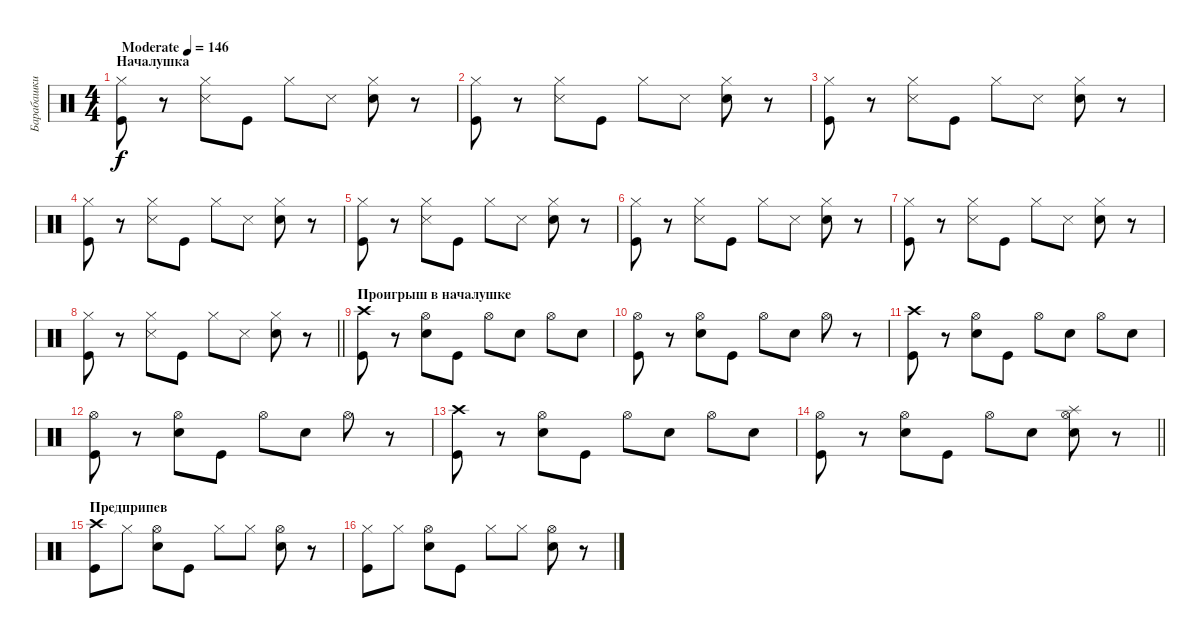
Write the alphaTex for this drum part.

\track ("Барабашки" "Барабашки") {instrument percussion}
\staff {score}
\articulation defaults
\ts (4 4)
\section ("" "Началушка")
\tempo (146 "Moderate")
\clef neutral
\ks c
("Hi-Hat (closed)" "Kick (hit)").8{dy f} r.8 ("Hi-Hat (closed)" "Snare (side stick) 3").8 "Kick (hit)".8 "Hi-Hat (closed)".8 "Snare (side stick) 3".8 ("Hi-Hat (closed)" "Hand Clap (hit)").8 r.8 |
("Hi-Hat (closed)" "Kick (hit)").8 r.8 ("Hi-Hat (closed)" "Snare (side stick) 3").8 "Kick (hit)".8 "Hi-Hat (closed)".8 "Snare (side stick) 3".8 ("Hi-Hat (closed)" "Hand Clap (hit)").8 r.8 |
("Hi-Hat (closed)" "Kick (hit)").8 r.8 ("Hi-Hat (closed)" "Snare (side stick) 3").8 "Kick (hit)".8 "Hi-Hat (closed)".8 "Snare (side stick) 3".8 ("Hi-Hat (closed)" "Hand Clap (hit)").8 r.8 |
("Hi-Hat (closed)" "Kick (hit)").8 r.8 ("Hi-Hat (closed)" "Snare (side stick) 3").8 "Kick (hit)".8 "Hi-Hat (closed)".8 "Snare (side stick) 3".8 ("Hi-Hat (closed)" "Hand Clap (hit)").8 r.8 |
("Hi-Hat (closed)" "Kick (hit)").8 r.8 ("Hi-Hat (closed)" "Snare (side stick) 3").8 "Kick (hit)".8 "Hi-Hat (closed)".8 "Snare (side stick) 3".8 ("Hi-Hat (closed)" "Hand Clap (hit)").8 r.8 |
("Hi-Hat (closed)" "Kick (hit)").8 r.8 ("Hi-Hat (closed)" "Snare (side stick) 3").8 "Kick (hit)".8 "Hi-Hat (closed)".8 "Snare (side stick) 3".8 ("Hi-Hat (closed)" "Hand Clap (hit)").8 r.8 |
("Hi-Hat (closed)" "Kick (hit)").8 r.8 ("Hi-Hat (closed)" "Snare (side stick) 3").8 "Kick (hit)".8 "Hi-Hat (closed)".8 "Snare (side stick) 3".8 ("Hi-Hat (closed)" "Hand Clap (hit)").8 r.8 |
\barLineRight lightlight
("Hi-Hat (closed)" "Kick (hit)").8 r.8 ("Hi-Hat (closed)" "Snare (side stick) 3").8 "Kick (hit)".8 "Hi-Hat (closed)".8 "Snare (side stick) 3".8 ("Hi-Hat (closed)" "Hand Clap (hit)").8 r.8 |
\section ("" "Проигрыш в началушке")
("Crash high (hit)" "Kick (hit)").8 r.8 ("Hi-Hat (open)" "Snare (hit) 2").8 "Kick (hit)".8 "Hi-Hat (open)".8 "Snare (hit) 2".8 "Hi-Hat (open)".8 "Snare (hit) 2".8 |
("Hi-Hat (open)" "Kick (hit)").8 r.8 ("Hi-Hat (open)" "Snare (hit) 2").8 "Kick (hit)".8 "Hi-Hat (open)".8 "Snare (hit) 2".8 "Hi-Hat (open)".8 r.8 |
("Crash high (hit)" "Kick (hit)").8 r.8 ("Hi-Hat (open)" "Snare (hit) 2").8 "Kick (hit)".8 "Hi-Hat (open)".8 "Snare (hit) 2".8 "Hi-Hat (open)".8 "Snare (hit) 2".8 |
("Hi-Hat (open)" "Kick (hit)").8 r.8 ("Hi-Hat (open)" "Snare (hit) 2").8 "Kick (hit)".8 "Hi-Hat (open)".8 "Snare (hit) 2".8 "Hi-Hat (open)".8 r.8 |
("Crash high (hit)" "Kick (hit)").8 r.8 ("Hi-Hat (open)" "Snare (hit) 2").8 "Kick (hit)".8 "Hi-Hat (open)".8 "Snare (hit) 2".8 "Hi-Hat (open)".8 "Snare (hit) 2".8 |
\barLineRight lightlight
("Hi-Hat (open)" "Kick (hit)").8 r.8 ("Hi-Hat (open)" "Snare (hit) 2").8 "Kick (hit)".8 "Hi-Hat (open)".8 "Snare (hit) 2".8 ("Hi-Hat (open)" "Splash (hit)" "Hand Clap (hit)").8 r.8 |
\section ("" "Предприпев")
("Crash high (hit)" "Kick (hit)").8 "Hi-Hat (closed)".8 ("Hi-Hat (open)" "Snare (hit) 2").8 "Kick (hit)".8 "Hi-Hat (closed)".8 "Hi-Hat (closed)".8 ("Hi-Hat (open)" "Snare (hit) 2").8 r.8 |
("Hi-Hat (closed)" "Kick (hit)").8 "Hi-Hat (closed)".8 ("Hi-Hat (open)" "Snare (hit) 2").8 "Kick (hit)".8 "Hi-Hat (closed)".8 "Hi-Hat (closed)".8 ("Hi-Hat (open)" "Snare (hit) 2").8 r.8
